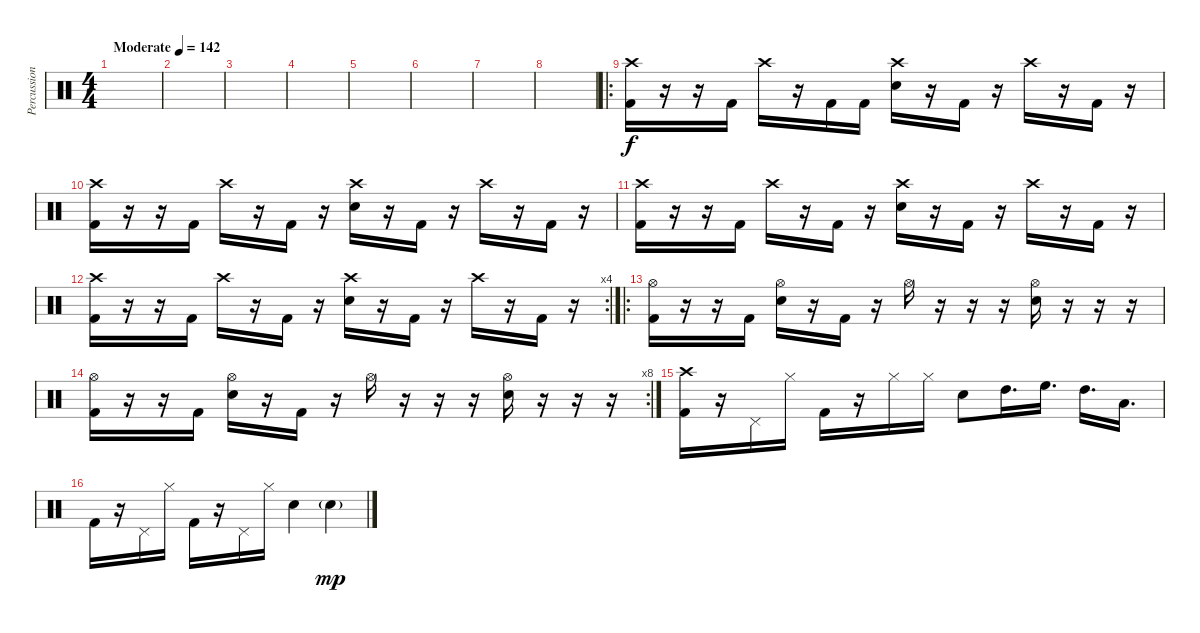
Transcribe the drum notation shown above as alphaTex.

\track ("Percussion" "Percussion") {instrument percussion}
\staff {score}
\articulation defaults
\ts (4 4)
\tempo (142 "Moderate")
\clef neutral
\ks c
|
|
|
|
|
|
|
|
\ro
("Crash high (hit)" "Kick (hit) 2").16 r.16 r.16 "Kick (hit) 2".16 "Crash high (hit)".16 r.16 "Kick (hit) 2".16 "Kick (hit) 2".16 ("Crash high (hit)" "Snare (hit) 2").16 r.16 "Kick (hit) 2".16 r.16 "Crash high (hit)".16 r.16 "Kick (hit) 2".16 r.16 |
("Crash high (hit)" "Kick (hit) 2").16 r.16 r.16 "Kick (hit) 2".16 "Crash high (hit)".16 r.16 "Kick (hit) 2".16 r.16 ("Crash high (hit)" "Snare (hit) 2").16 r.16 "Kick (hit) 2".16 r.16 "Crash high (hit)".16 r.16 "Kick (hit) 2".16 r.16 |
("Crash high (hit)" "Kick (hit) 2").16 r.16 r.16 "Kick (hit) 2".16 "Crash high (hit)".16 r.16 "Kick (hit) 2".16 r.16 ("Crash high (hit)" "Snare (hit) 2").16 r.16 "Kick (hit) 2".16 r.16 "Crash high (hit)".16 r.16 "Kick (hit) 2".16 r.16 |
\rc 4
("Crash high (hit)" "Kick (hit) 2").16 r.16 r.16 "Kick (hit) 2".16 "Crash high (hit)".16 r.16 "Kick (hit) 2".16 r.16 ("Crash high (hit)" "Snare (hit) 2").16 r.16 "Kick (hit) 2".16 r.16 "Crash high (hit)".16 r.16 "Kick (hit) 2".16 r.16 |
\ro
("Hi-Hat (open)" "Kick (hit) 2").16 r.16 r.16 "Kick (hit) 2".16 ("Hi-Hat (open)" "Snare (hit) 2").16 r.16 "Kick (hit) 2".16 r.16 "Hi-Hat (open)".16 r.16 r.16 r.16 ("Hi-Hat (open)" "Snare (hit) 2").16 r.16 r.16 r.16 |
\rc 8
("Hi-Hat (open)" "Kick (hit) 2").16 r.16 r.16 "Kick (hit) 2".16 ("Hi-Hat (open)" "Snare (hit) 2").16 r.16 "Kick (hit) 2".16 r.16 "Hi-Hat (open)".16 r.16 r.16 r.16 ("Hi-Hat (open)" "Snare (hit) 2").16 r.16 r.16 r.16 |
("Crash high (hit)" "Kick (hit) 2").16 r.16 "Pedal Hi-Hat (hit)".16 "Hi-Hat (closed)".16 "Kick (hit) 2".16 r.16 "Hi-Hat (closed)".16 "Hi-Hat (closed)".16 "Snare (hit) 2".8 "High Tom (hit)".16{d} "High Floor Tom (hit)".16{d} "High Tom (hit)".16{d} "Low Tom (hit)".16{d} |
"Kick (hit) 2".16 r.16 "Pedal Hi-Hat (hit)".16 "Hi-Hat (closed)".16 "Kick (hit) 2".16 r.16 "Pedal Hi-Hat (hit)".16 "Hi-Hat (closed)".16 "Snare (hit) 2".4 "Snare (hit) 2"{g}.4{dy mp}
